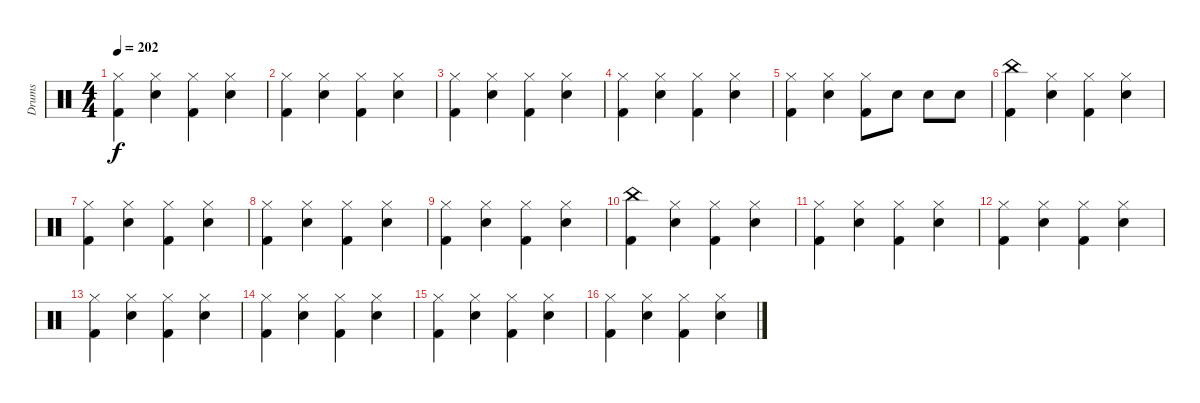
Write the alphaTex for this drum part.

\track ("Drums" "Drums") {instrument percussion}
\staff {score}
\articulation defaults
\ts (4 4)
\tempo 202
\clef neutral
\ks c
("Hi-Hat (closed)" "Kick (hit) 2").4{dy f} ("Hi-Hat (closed)" "Snare (hit) 2").4 ("Hi-Hat (closed)" "Kick (hit) 2").4 ("Hi-Hat (closed)" "Snare (hit) 2").4 |
("Hi-Hat (closed)" "Kick (hit) 2").4 ("Hi-Hat (closed)" "Snare (hit) 2").4 ("Hi-Hat (closed)" "Kick (hit) 2").4 ("Hi-Hat (closed)" "Snare (hit) 2").4 |
("Hi-Hat (closed)" "Kick (hit) 2").4 ("Hi-Hat (closed)" "Snare (hit) 2").4 ("Hi-Hat (closed)" "Kick (hit) 2").4 ("Hi-Hat (closed)" "Snare (hit) 2").4 |
("Hi-Hat (closed)" "Kick (hit) 2").4 ("Hi-Hat (closed)" "Snare (hit) 2").4 ("Hi-Hat (closed)" "Kick (hit) 2").4 ("Hi-Hat (closed)" "Snare (hit) 2").4 |
("Hi-Hat (closed)" "Kick (hit) 2").4 ("Hi-Hat (closed)" "Snare (hit) 2").4 ("Hi-Hat (closed)" "Kick (hit) 2").8 "Snare (hit) 2".8 "Snare (hit) 2".8 "Snare (hit) 2".8 |
("China (hit)" "Kick (hit) 2").4 ("Hi-Hat (closed)" "Snare (hit) 2").4 ("Hi-Hat (closed)" "Kick (hit) 2").4 ("Hi-Hat (closed)" "Snare (hit) 2").4 |
("Hi-Hat (closed)" "Kick (hit) 2").4 ("Hi-Hat (closed)" "Snare (hit) 2").4 ("Hi-Hat (closed)" "Kick (hit) 2").4 ("Hi-Hat (closed)" "Snare (hit) 2").4 |
("Hi-Hat (closed)" "Kick (hit) 2").4 ("Hi-Hat (closed)" "Snare (hit) 2").4 ("Hi-Hat (closed)" "Kick (hit) 2").4 ("Hi-Hat (closed)" "Snare (hit) 2").4 |
("Hi-Hat (closed)" "Kick (hit) 2").4 ("Hi-Hat (closed)" "Snare (hit) 2").4 ("Hi-Hat (closed)" "Kick (hit) 2").4 ("Hi-Hat (closed)" "Snare (hit) 2").4 |
("China (hit)" "Kick (hit) 2").4 ("Hi-Hat (closed)" "Snare (hit) 2").4 ("Hi-Hat (closed)" "Kick (hit) 2").4 ("Hi-Hat (closed)" "Snare (hit) 2").4 |
("Hi-Hat (closed)" "Kick (hit) 2").4 ("Hi-Hat (closed)" "Snare (hit) 2").4 ("Hi-Hat (closed)" "Kick (hit) 2").4 ("Hi-Hat (closed)" "Snare (hit) 2").4 |
("Hi-Hat (closed)" "Kick (hit) 2").4 ("Hi-Hat (closed)" "Snare (hit) 2").4 ("Hi-Hat (closed)" "Kick (hit) 2").4 ("Hi-Hat (closed)" "Snare (hit) 2").4 |
("Hi-Hat (closed)" "Kick (hit) 2").4 ("Hi-Hat (closed)" "Snare (hit) 2").4 ("Hi-Hat (closed)" "Kick (hit) 2").4 ("Hi-Hat (closed)" "Snare (hit) 2").4 |
("Hi-Hat (closed)" "Kick (hit) 2").4 ("Hi-Hat (closed)" "Snare (hit) 2").4 ("Hi-Hat (closed)" "Kick (hit) 2").4 ("Hi-Hat (closed)" "Snare (hit) 2").4 |
("Hi-Hat (closed)" "Kick (hit) 2").4 ("Hi-Hat (closed)" "Snare (hit) 2").4 ("Hi-Hat (closed)" "Kick (hit) 2").4 ("Hi-Hat (closed)" "Snare (hit) 2").4 |
("Hi-Hat (closed)" "Kick (hit) 2").4 ("Hi-Hat (closed)" "Snare (hit) 2").4 ("Hi-Hat (closed)" "Kick (hit) 2").4 ("Hi-Hat (closed)" "Snare (hit) 2").4
